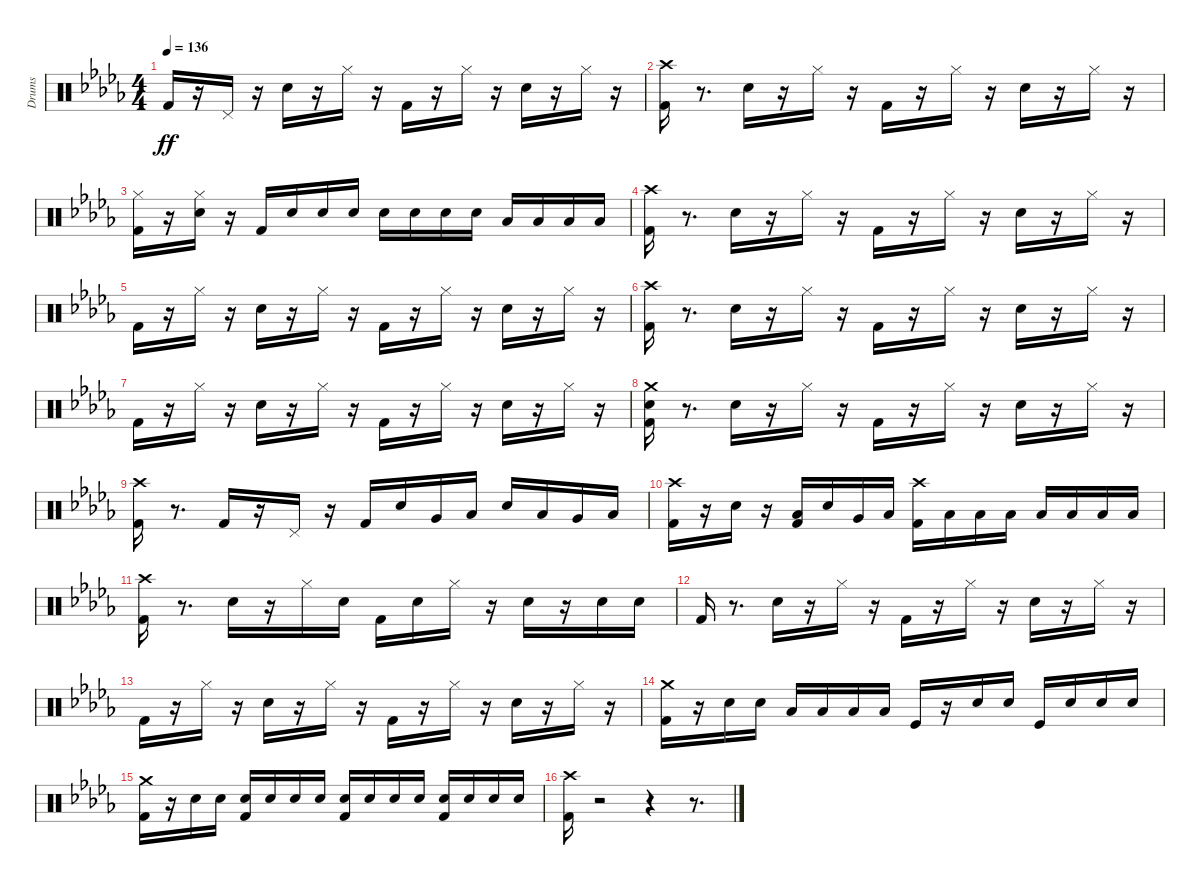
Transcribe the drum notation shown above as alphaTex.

\track ("Drums" "Drums") {instrument percussion}
\staff {score}
\articulation defaults
\ts (4 4)
\tempo 136
\clef neutral
\ks db "Kick (hit) 2".16{dy ff}
r.16 "Pedal Hi-Hat (hit)".16 r.16 "Electric Snare (hit)".16 r.16 "Hi-Hat (closed)".16 r.16 "Kick (hit) 2".16 r.16 "Hi-Hat (closed)".16 r.16 "Electric Snare (hit)".16 r.16 "Hi-Hat (closed)".16 r.16 |
("Kick (hit) 2" "Crash high (hit)").16 r.8{d} "Electric Snare (hit)".16 r.16 "Hi-Hat (closed)".16 r.16 "Kick (hit) 2".16 r.16 "Hi-Hat (closed)".16 r.16 "Electric Snare (hit)".16 r.16 "Hi-Hat (closed)".16 r.16 |
("Kick (hit) 2" "Hi-Hat (closed)").16 r.16 ("Electric Snare (hit)" "Hi-Hat (closed)").16 r.16 "Kick (hit) 2".16 "Electric Snare (hit)".16 "Electric Snare (hit)".16 "Electric Snare (hit)".16 "Electric Snare (hit)".16 "Electric Snare (hit)".16 "Electric Snare (hit)".16 "Electric Snare (hit)".16 "Low Floor Tom (hit)".16 "Low Floor Tom (hit)".16 "Low Floor Tom (hit)".16 "Low Floor Tom (hit)".16 |
("Kick (hit) 2" "Crash high (hit)").16 r.8{d} "Electric Snare (hit)".16 r.16 "Hi-Hat (closed)".16 r.16 "Kick (hit) 2".16 r.16 "Hi-Hat (closed)".16 r.16 "Electric Snare (hit)".16 r.16 "Hi-Hat (closed)".16 r.16 |
"Kick (hit) 2".16 r.16 "Hi-Hat (closed)".16 r.16 "Electric Snare (hit)".16 r.16 "Hi-Hat (closed)".16 r.16 "Kick (hit) 2".16 r.16 "Hi-Hat (closed)".16 r.16 "Electric Snare (hit)".16 r.16 "Hi-Hat (closed)".16 r.16 |
("Kick (hit) 2" "Crash high (hit)").16 r.8{d} "Electric Snare (hit)".16 r.16 "Hi-Hat (closed)".16 r.16 "Kick (hit) 2".16 r.16 "Hi-Hat (closed)".16 r.16 "Electric Snare (hit)".16 r.16 "Hi-Hat (closed)".16 r.16 |
"Kick (hit) 2".16 r.16 "Hi-Hat (closed)".16 r.16 "Electric Snare (hit)".16 r.16 "Hi-Hat (closed)".16 r.16 "Kick (hit) 2".16 r.16 "Hi-Hat (closed)".16 r.16 "Electric Snare (hit)".16 r.16 "Hi-Hat (closed)".16 r.16 |
("Kick (hit) 2" "Electric Snare (hit)" "Crash medium (hit)").16 r.8{d} "Electric Snare (hit)".16 r.16 "Hi-Hat (closed)".16 r.16 "Kick (hit) 2".16 r.16 "Hi-Hat (closed)".16 r.16 "Electric Snare (hit)".16 r.16 "Hi-Hat (closed)".16 r.16 |
("Kick (hit) 2" "Crash high (hit)").16 r.8{d} "Kick (hit) 2".16 r.16 "Pedal Hi-Hat (hit)".16 r.16 "Kick (hit) 2".16 "Electric Snare (hit)".16 "Very Low Tom (hit)".16 "Low Floor Tom (hit)".16 "Electric Snare (hit)".16 "Low Tom (hit)".16 "Very Low Tom (hit)".16 "Low Floor Tom (hit)".16 |
("Kick (hit) 2" "Crash high (hit)").16 r.16 "Electric Snare (hit)".16 r.16 ("Kick (hit) 2" "Low Floor Tom (hit)").16 "Electric Snare (hit)".16 "Very Low Tom (hit)".16 "Low Floor Tom (hit)".16 ("Kick (hit) 2" "Crash high (hit)").16 "Low Floor Tom (hit)".16 "Low Floor Tom (hit)".16 "Low Floor Tom (hit)".16 "Low Floor Tom (hit)".16 "Low Floor Tom (hit)".16 "Low Floor Tom (hit)".16 "Low Floor Tom (hit)".16 |
("Kick (hit) 2" "Crash high (hit)").16 r.8{d} "Electric Snare (hit)".16 r.16 "Hi-Hat (closed)".16 "Electric Snare (hit)".16 "Kick (hit) 2".16 "Electric Snare (hit)".16 "Hi-Hat (closed)".16 r.16 "Electric Snare (hit)".16 r.16 "Electric Snare (hit)".16 "Electric Snare (hit)".16 |
"Kick (hit) 2".16 r.8{d} "Electric Snare (hit)".16 r.16 "Hi-Hat (closed)".16 r.16 "Kick (hit) 2".16 r.16 "Hi-Hat (closed)".16 r.16 "Electric Snare (hit)".16 r.16 "Hi-Hat (closed)".16 r.16 |
"Kick (hit) 2".16 r.16 "Hi-Hat (closed)".16 r.16 "Electric Snare (hit)".16 r.16 "Hi-Hat (closed)".16 r.16 "Kick (hit) 2".16 r.16 "Hi-Hat (closed)".16 r.16 "Electric Snare (hit)".16 r.16 "Hi-Hat (closed)".16 r.16 |
("Kick (hit) 2" "Crash medium (hit)").16 r.16 "Electric Snare (hit)".16 "Electric Snare (hit)".16 "Low Floor Tom (hit)".16 "Low Floor Tom (hit)".16 "Low Floor Tom (hit)".16 "Low Floor Tom (hit)".16 "Kick (hit)".16 r.16 "Electric Snare (hit)".16 "Electric Snare (hit)".16 "Kick (hit)".16 "Electric Snare (hit)".16 "Electric Snare (hit)".16 "Electric Snare (hit)".16 |
("Kick (hit) 2" "Crash medium (hit)").16 r.16 "Electric Snare (hit)".16 "Electric Snare (hit)".16 ("Kick (hit) 2" "Electric Snare (hit)").16 "Electric Snare (hit)".16 "Electric Snare (hit)".16 "Electric Snare (hit)".16 ("Kick (hit) 2" "Electric Snare (hit)").16 "Electric Snare (hit)".16 "Electric Snare (hit)".16 "Electric Snare (hit)".16 ("Kick (hit) 2" "Electric Snare (hit)").16 "Electric Snare (hit)".16 "Electric Snare (hit)".16 "Electric Snare (hit)".16 |
("Kick (hit) 2" "Crash high (hit)").16 r.2 r.4 r.8{d}
